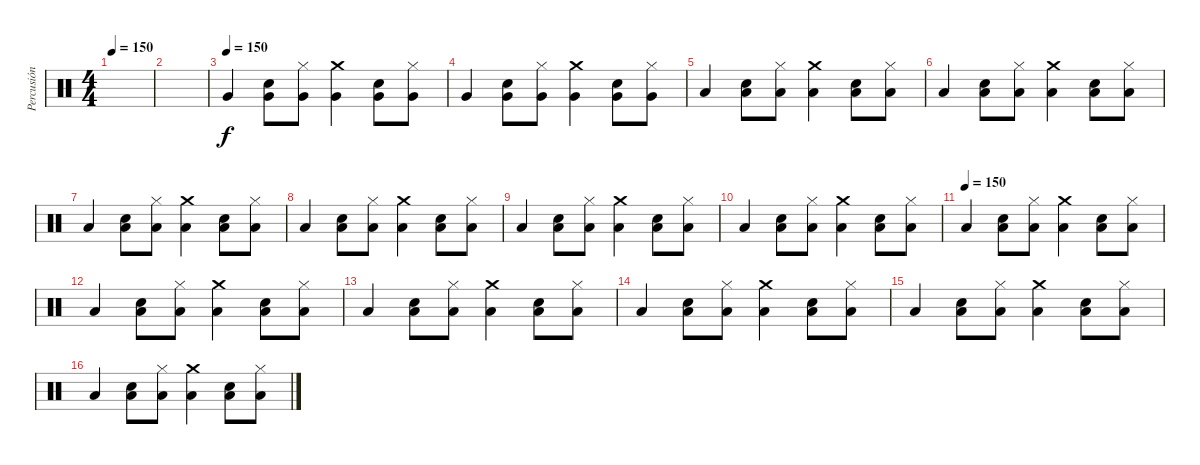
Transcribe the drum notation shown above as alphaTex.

\track ("Percusión" "Percusión") {instrument percussion}
\staff {score}
\articulation defaults
\ts (4 4)
\tempo 150
\clef neutral
\ks c
|
|
\tempo (150)
"Very Low Tom (hit)".4 ("Very Low Tom (hit)" "Snare (hit) 2").8 ("Very Low Tom (hit)" "Hi-Hat (closed)").8 ("Very Low Tom (hit)" "Crash medium (hit)").4 ("Very Low Tom (hit)" "Snare (hit) 2").8 ("Very Low Tom (hit)" "Hi-Hat (closed)").8 |
"Very Low Tom (hit)".4 ("Very Low Tom (hit)" "Snare (hit) 2").8 ("Very Low Tom (hit)" "Hi-Hat (closed)").8 ("Very Low Tom (hit)" "Crash medium (hit)").4 ("Very Low Tom (hit)" "Snare (hit) 2").8 ("Very Low Tom (hit)" "Hi-Hat (closed)").8 |
"Low Floor Tom (hit)".4 ("Low Floor Tom (hit)" "Snare (hit) 2").8 ("Low Floor Tom (hit)" "Hi-Hat (closed)").8 ("Low Floor Tom (hit)" "Crash medium (hit)").4 ("Low Floor Tom (hit)" "Snare (hit) 2").8 ("Low Floor Tom (hit)" "Hi-Hat (closed)").8 |
"Low Floor Tom (hit)".4 ("Low Floor Tom (hit)" "Snare (hit) 2").8 ("Low Floor Tom (hit)" "Hi-Hat (closed)").8 ("Low Floor Tom (hit)" "Crash medium (hit)").4 ("Low Floor Tom (hit)" "Snare (hit) 2").8 ("Low Floor Tom (hit)" "Hi-Hat (closed)").8 |
"Low Floor Tom (hit)".4 ("Low Floor Tom (hit)" "Snare (hit) 2").8 ("Low Floor Tom (hit)" "Hi-Hat (closed)").8 ("Low Floor Tom (hit)" "Crash medium (hit)").4 ("Low Floor Tom (hit)" "Snare (hit) 2").8 ("Low Floor Tom (hit)" "Hi-Hat (closed)").8 |
"Low Floor Tom (hit)".4 ("Low Floor Tom (hit)" "Snare (hit) 2").8 ("Low Floor Tom (hit)" "Hi-Hat (closed)").8 ("Low Floor Tom (hit)" "Crash medium (hit)").4 ("Low Floor Tom (hit)" "Snare (hit) 2").8 ("Low Floor Tom (hit)" "Hi-Hat (closed)").8 |
"Low Floor Tom (hit)".4 ("Low Floor Tom (hit)" "Snare (hit) 2").8 ("Low Floor Tom (hit)" "Hi-Hat (closed)").8 ("Low Floor Tom (hit)" "Crash medium (hit)").4 ("Low Floor Tom (hit)" "Snare (hit) 2").8 ("Low Floor Tom (hit)" "Hi-Hat (closed)").8 |
"Low Floor Tom (hit)".4 ("Low Floor Tom (hit)" "Snare (hit) 2").8 ("Low Floor Tom (hit)" "Hi-Hat (closed)").8 ("Low Floor Tom (hit)" "Crash medium (hit)").4 ("Low Floor Tom (hit)" "Snare (hit) 2").8 ("Low Floor Tom (hit)" "Hi-Hat (closed)").8 |
\tempo (150)
"Low Floor Tom (hit)".4 ("Low Floor Tom (hit)" "Snare (hit) 2").8 ("Low Floor Tom (hit)" "Hi-Hat (closed)").8 ("Low Floor Tom (hit)" "Crash medium (hit)").4 ("Low Floor Tom (hit)" "Snare (hit) 2").8 ("Low Floor Tom (hit)" "Hi-Hat (closed)").8 |
"Low Floor Tom (hit)".4 ("Low Floor Tom (hit)" "Snare (hit) 2").8 ("Low Floor Tom (hit)" "Hi-Hat (closed)").8 ("Low Floor Tom (hit)" "Crash medium (hit)").4 ("Low Floor Tom (hit)" "Snare (hit) 2").8 ("Low Floor Tom (hit)" "Hi-Hat (closed)").8 |
"Low Floor Tom (hit)".4 ("Low Floor Tom (hit)" "Snare (hit) 2").8 ("Low Floor Tom (hit)" "Hi-Hat (closed)").8 ("Low Floor Tom (hit)" "Crash medium (hit)").4 ("Low Floor Tom (hit)" "Snare (hit) 2").8 ("Low Floor Tom (hit)" "Hi-Hat (closed)").8 |
"Low Floor Tom (hit)".4 ("Low Floor Tom (hit)" "Snare (hit) 2").8 ("Low Floor Tom (hit)" "Hi-Hat (closed)").8 ("Low Floor Tom (hit)" "Crash medium (hit)").4 ("Low Floor Tom (hit)" "Snare (hit) 2").8 ("Low Floor Tom (hit)" "Hi-Hat (closed)").8 |
"Low Floor Tom (hit)".4 ("Low Floor Tom (hit)" "Snare (hit) 2").8 ("Low Floor Tom (hit)" "Hi-Hat (closed)").8 ("Low Floor Tom (hit)" "Crash medium (hit)").4 ("Low Floor Tom (hit)" "Snare (hit) 2").8 ("Low Floor Tom (hit)" "Hi-Hat (closed)").8 |
"Low Floor Tom (hit)".4 ("Low Floor Tom (hit)" "Snare (hit) 2").8 ("Low Floor Tom (hit)" "Hi-Hat (closed)").8 ("Low Floor Tom (hit)" "Crash medium (hit)").4 ("Low Floor Tom (hit)" "Snare (hit) 2").8 ("Low Floor Tom (hit)" "Hi-Hat (closed)").8
